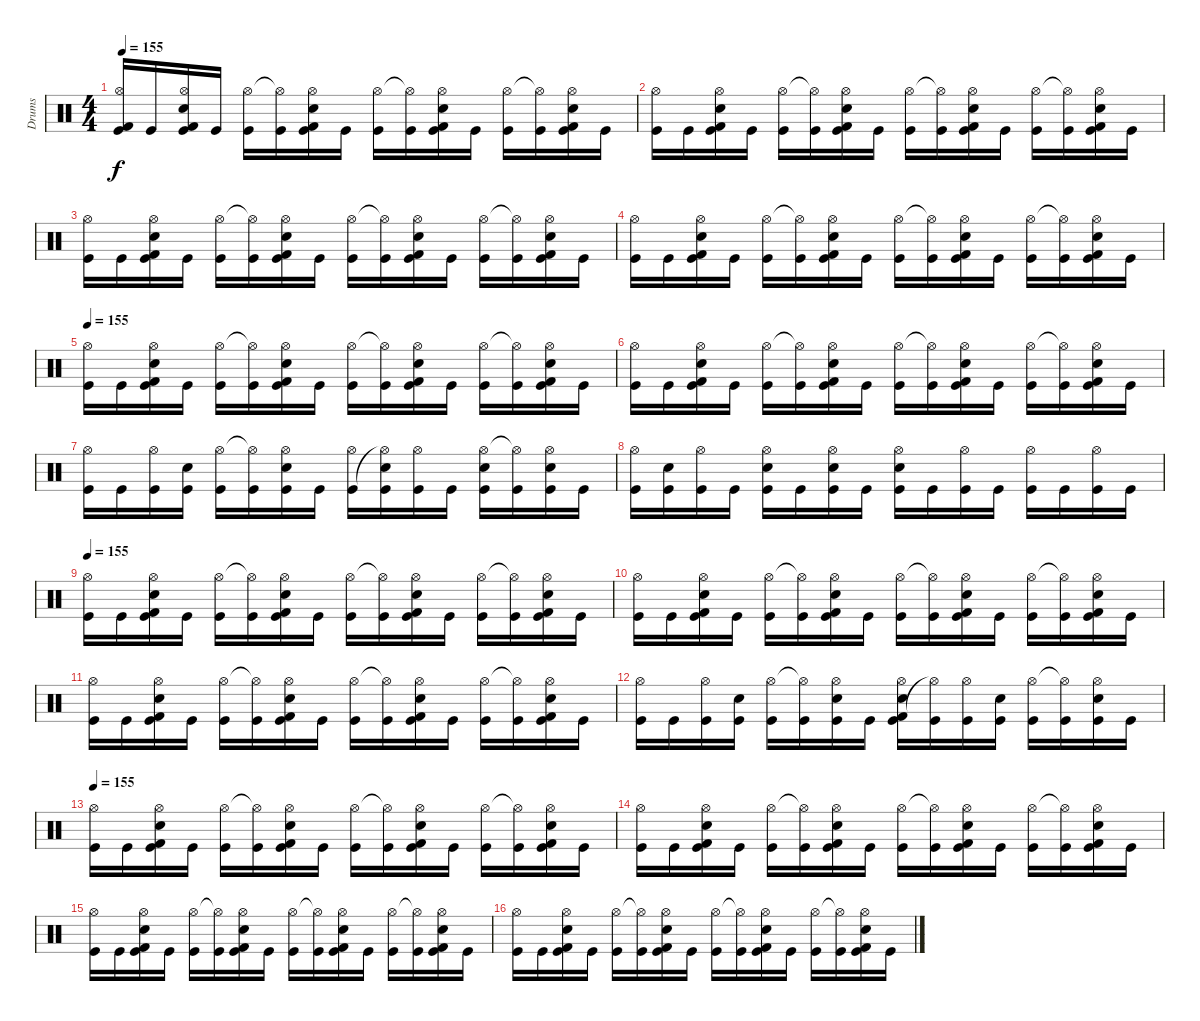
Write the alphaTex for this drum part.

\track ("Drums" "Drums") {instrument percussion}
\staff {score}
\articulation defaults
\ts (4 4)
\tempo 155
\clef neutral
\ks c
("Kick (hit) 2" "Hi-Hat (open)" "Kick (hit)").16{dy f} "Kick (hit)".16 ("Kick (hit) 2" "Electric Snare (hit)" "Hi-Hat (open)" "Kick (hit)").16 "Kick (hit)".16 ("Hi-Hat (open)" "Kick (hit)").16 ("Hi-Hat (open)"{t} "Kick (hit)").16 ("Kick (hit) 2" "Electric Snare (hit)" "Hi-Hat (open)" "Kick (hit)").16 "Kick (hit)".16 ("Hi-Hat (open)" "Kick (hit)").16 ("Hi-Hat (open)"{t} "Kick (hit)").16 ("Kick (hit) 2" "Electric Snare (hit)" "Hi-Hat (open)" "Kick (hit)").16 "Kick (hit)".16 ("Hi-Hat (open)" "Kick (hit)").16 ("Hi-Hat (open)"{t} "Kick (hit)").16 ("Kick (hit) 2" "Electric Snare (hit)" "Hi-Hat (open)" "Kick (hit)").16 "Kick (hit)".16 |
("Hi-Hat (open)" "Kick (hit)").16 "Kick (hit)".16 ("Kick (hit) 2" "Electric Snare (hit)" "Hi-Hat (open)" "Kick (hit)").16 "Kick (hit)".16 ("Hi-Hat (open)" "Kick (hit)").16 ("Hi-Hat (open)"{t} "Kick (hit)").16 ("Kick (hit) 2" "Electric Snare (hit)" "Hi-Hat (open)" "Kick (hit)").16 "Kick (hit)".16 ("Hi-Hat (open)" "Kick (hit)").16 ("Hi-Hat (open)"{t} "Kick (hit)").16 ("Kick (hit) 2" "Electric Snare (hit)" "Hi-Hat (open)" "Kick (hit)").16 "Kick (hit)".16 ("Hi-Hat (open)" "Kick (hit)").16 ("Hi-Hat (open)"{t} "Kick (hit)").16 ("Kick (hit) 2" "Electric Snare (hit)" "Hi-Hat (open)" "Kick (hit)").16 "Kick (hit)".16 |
("Hi-Hat (open)" "Kick (hit)").16 "Kick (hit)".16 ("Kick (hit) 2" "Electric Snare (hit)" "Hi-Hat (open)" "Kick (hit)").16 "Kick (hit)".16 ("Hi-Hat (open)" "Kick (hit)").16 ("Hi-Hat (open)"{t} "Kick (hit)").16 ("Kick (hit) 2" "Electric Snare (hit)" "Hi-Hat (open)" "Kick (hit)").16 "Kick (hit)".16 ("Hi-Hat (open)" "Kick (hit)").16 ("Hi-Hat (open)"{t} "Kick (hit)").16 ("Kick (hit) 2" "Electric Snare (hit)" "Hi-Hat (open)" "Kick (hit)").16 "Kick (hit)".16 ("Hi-Hat (open)" "Kick (hit)").16 ("Hi-Hat (open)"{t} "Kick (hit)").16 ("Kick (hit) 2" "Electric Snare (hit)" "Hi-Hat (open)" "Kick (hit)").16 "Kick (hit)".16 |
("Hi-Hat (open)" "Kick (hit)").16 "Kick (hit)".16 ("Kick (hit) 2" "Electric Snare (hit)" "Hi-Hat (open)" "Kick (hit)").16 "Kick (hit)".16 ("Hi-Hat (open)" "Kick (hit)").16 ("Hi-Hat (open)"{t} "Kick (hit)").16 ("Kick (hit) 2" "Electric Snare (hit)" "Hi-Hat (open)" "Kick (hit)").16 "Kick (hit)".16 ("Hi-Hat (open)" "Kick (hit)").16 ("Hi-Hat (open)"{t} "Kick (hit)").16 ("Kick (hit) 2" "Electric Snare (hit)" "Hi-Hat (open)" "Kick (hit)").16 "Kick (hit)".16 ("Hi-Hat (open)" "Kick (hit)").16 ("Hi-Hat (open)"{t} "Kick (hit)").16 ("Kick (hit) 2" "Electric Snare (hit)" "Hi-Hat (open)" "Kick (hit)").16 "Kick (hit)".16 |
\tempo 155
("Hi-Hat (open)" "Kick (hit)").16 "Kick (hit)".16 ("Kick (hit) 2" "Electric Snare (hit)" "Hi-Hat (open)" "Kick (hit)").16 "Kick (hit)".16 ("Hi-Hat (open)" "Kick (hit)").16 ("Hi-Hat (open)"{t} "Kick (hit)").16 ("Kick (hit) 2" "Electric Snare (hit)" "Hi-Hat (open)" "Kick (hit)").16 "Kick (hit)".16 ("Hi-Hat (open)" "Kick (hit)").16 ("Hi-Hat (open)"{t} "Kick (hit)").16 ("Kick (hit) 2" "Electric Snare (hit)" "Hi-Hat (open)" "Kick (hit)").16 "Kick (hit)".16 ("Hi-Hat (open)" "Kick (hit)").16 ("Hi-Hat (open)"{t} "Kick (hit)").16 ("Kick (hit) 2" "Electric Snare (hit)" "Hi-Hat (open)" "Kick (hit)").16 "Kick (hit)".16 |
("Hi-Hat (open)" "Kick (hit)").16 "Kick (hit)".16 ("Kick (hit) 2" "Electric Snare (hit)" "Hi-Hat (open)" "Kick (hit)").16 "Kick (hit)".16 ("Hi-Hat (open)" "Kick (hit)").16 ("Hi-Hat (open)"{t} "Kick (hit)").16 ("Kick (hit) 2" "Electric Snare (hit)" "Hi-Hat (open)" "Kick (hit)").16 "Kick (hit)".16 ("Hi-Hat (open)" "Kick (hit)").16 ("Hi-Hat (open)"{t} "Kick (hit)").16 ("Kick (hit) 2" "Electric Snare (hit)" "Hi-Hat (open)" "Kick (hit)").16 "Kick (hit)".16 ("Hi-Hat (open)" "Kick (hit)").16 ("Hi-Hat (open)"{t} "Kick (hit)").16 ("Kick (hit) 2" "Electric Snare (hit)" "Hi-Hat (open)" "Kick (hit)").16 "Kick (hit)".16 |
("Hi-Hat (open)" "Kick (hit)").16 "Kick (hit)".16 ("Hi-Hat (open)" "Kick (hit)").16 ("Electric Snare (hit)" "Kick (hit)").16 ("Hi-Hat (open)" "Kick (hit)").16 ("Hi-Hat (open)"{t} "Kick (hit)").16 ("Electric Snare (hit)" "Hi-Hat (open)" "Kick (hit)").16 "Kick (hit)".16 ("Hi-Hat (open)" "Kick (hit)").16 ("Electric Snare (hit)" "Hi-Hat (open)"{t} "Kick (hit)").16 ("Hi-Hat (open)" "Kick (hit)").16 "Kick (hit)".16 ("Hi-Hat (open)" "Electric Snare (hit)" "Kick (hit)").16 ("Hi-Hat (open)"{t} "Kick (hit)").16 ("Hi-Hat (open)" "Electric Snare (hit)" "Kick (hit)").16 "Kick (hit)".16 |
("Hi-Hat (open)" "Kick (hit)").16 ("Electric Snare (hit)" "Kick (hit)").16 ("Hi-Hat (open)" "Kick (hit)").16 "Kick (hit)".16 ("Electric Snare (hit)" "Hi-Hat (open)" "Kick (hit)").16 "Kick (hit)".16 ("Electric Snare (hit)" "Hi-Hat (open)" "Kick (hit)").16 "Kick (hit)".16 ("Electric Snare (hit)" "Hi-Hat (open)" "Kick (hit)").16 "Kick (hit)".16 ("Hi-Hat (open)" "Kick (hit)").16 "Kick (hit)".16 ("Hi-Hat (open)" "Kick (hit)").16 "Kick (hit)".16 ("Hi-Hat (open)" "Kick (hit)").16 "Kick (hit)".16 |
\tempo 155
("Hi-Hat (open)" "Kick (hit)").16 "Kick (hit)".16 ("Kick (hit) 2" "Electric Snare (hit)" "Hi-Hat (open)" "Kick (hit)").16 "Kick (hit)".16 ("Hi-Hat (open)" "Kick (hit)").16 ("Hi-Hat (open)"{t} "Kick (hit)").16 ("Kick (hit) 2" "Electric Snare (hit)" "Hi-Hat (open)" "Kick (hit)").16 "Kick (hit)".16 ("Hi-Hat (open)" "Kick (hit)").16 ("Hi-Hat (open)"{t} "Kick (hit)").16 ("Kick (hit) 2" "Electric Snare (hit)" "Hi-Hat (open)" "Kick (hit)").16 "Kick (hit)".16 ("Hi-Hat (open)" "Kick (hit)").16 ("Hi-Hat (open)"{t} "Kick (hit)").16 ("Kick (hit) 2" "Electric Snare (hit)" "Hi-Hat (open)" "Kick (hit)").16 "Kick (hit)".16 |
("Hi-Hat (open)" "Kick (hit)").16 "Kick (hit)".16 ("Kick (hit) 2" "Electric Snare (hit)" "Hi-Hat (open)" "Kick (hit)").16 "Kick (hit)".16 ("Hi-Hat (open)" "Kick (hit)").16 ("Hi-Hat (open)"{t} "Kick (hit)").16 ("Kick (hit) 2" "Electric Snare (hit)" "Hi-Hat (open)" "Kick (hit)").16 "Kick (hit)".16 ("Hi-Hat (open)" "Kick (hit)").16 ("Hi-Hat (open)"{t} "Kick (hit)").16 ("Kick (hit) 2" "Electric Snare (hit)" "Hi-Hat (open)" "Kick (hit)").16 "Kick (hit)".16 ("Hi-Hat (open)" "Kick (hit)").16 ("Hi-Hat (open)"{t} "Kick (hit)").16 ("Kick (hit) 2" "Electric Snare (hit)" "Hi-Hat (open)" "Kick (hit)").16 "Kick (hit)".16 |
("Hi-Hat (open)" "Kick (hit)").16 "Kick (hit)".16 ("Kick (hit) 2" "Electric Snare (hit)" "Hi-Hat (open)" "Kick (hit)").16 "Kick (hit)".16 ("Hi-Hat (open)" "Kick (hit)").16 ("Hi-Hat (open)"{t} "Kick (hit)").16 ("Kick (hit) 2" "Electric Snare (hit)" "Hi-Hat (open)" "Kick (hit)").16 "Kick (hit)".16 ("Hi-Hat (open)" "Kick (hit)").16 ("Hi-Hat (open)"{t} "Kick (hit)").16 ("Kick (hit) 2" "Electric Snare (hit)" "Hi-Hat (open)" "Kick (hit)").16 "Kick (hit)".16 ("Hi-Hat (open)" "Kick (hit)").16 ("Hi-Hat (open)"{t} "Kick (hit)").16 ("Kick (hit) 2" "Electric Snare (hit)" "Hi-Hat (open)" "Kick (hit)").16 "Kick (hit)".16 |
("Hi-Hat (open)" "Kick (hit)").16 "Kick (hit)".16 ("Hi-Hat (open)" "Kick (hit)").16 ("Electric Snare (hit)" "Kick (hit)").16 ("Hi-Hat (open)" "Kick (hit)").16 ("Hi-Hat (open)"{t} "Kick (hit)").16 ("Electric Snare (hit)" "Hi-Hat (open)" "Kick (hit)").16 "Kick (hit)".16 ("Kick (hit) 2" "Electric Snare (hit)" "Hi-Hat (open)" "Kick (hit)").16 ("Hi-Hat (open)"{t} "Kick (hit)").16 ("Hi-Hat (open)" "Kick (hit)").16 ("Electric Snare (hit)" "Kick (hit)").16 ("Hi-Hat (open)" "Kick (hit)").16 ("Hi-Hat (open)"{t} "Kick (hit)").16 ("Electric Snare (hit)" "Hi-Hat (open)" "Kick (hit)").16 "Kick (hit)".16 |
\tempo 155
("Hi-Hat (open)" "Kick (hit)").16 "Kick (hit)".16 ("Kick (hit) 2" "Electric Snare (hit)" "Hi-Hat (open)" "Kick (hit)").16 "Kick (hit)".16 ("Hi-Hat (open)" "Kick (hit)").16 ("Hi-Hat (open)"{t} "Kick (hit)").16 ("Kick (hit) 2" "Electric Snare (hit)" "Hi-Hat (open)" "Kick (hit)").16 "Kick (hit)".16 ("Hi-Hat (open)" "Kick (hit)").16 ("Hi-Hat (open)"{t} "Kick (hit)").16 ("Kick (hit) 2" "Electric Snare (hit)" "Hi-Hat (open)" "Kick (hit)").16 "Kick (hit)".16 ("Hi-Hat (open)" "Kick (hit)").16 ("Hi-Hat (open)"{t} "Kick (hit)").16 ("Kick (hit) 2" "Electric Snare (hit)" "Hi-Hat (open)" "Kick (hit)").16 "Kick (hit)".16 |
("Hi-Hat (open)" "Kick (hit)").16 "Kick (hit)".16 ("Kick (hit) 2" "Electric Snare (hit)" "Hi-Hat (open)" "Kick (hit)").16 "Kick (hit)".16 ("Hi-Hat (open)" "Kick (hit)").16 ("Hi-Hat (open)"{t} "Kick (hit)").16 ("Kick (hit) 2" "Electric Snare (hit)" "Hi-Hat (open)" "Kick (hit)").16 "Kick (hit)".16 ("Hi-Hat (open)" "Kick (hit)").16 ("Hi-Hat (open)"{t} "Kick (hit)").16 ("Kick (hit) 2" "Electric Snare (hit)" "Hi-Hat (open)" "Kick (hit)").16 "Kick (hit)".16 ("Hi-Hat (open)" "Kick (hit)").16 ("Hi-Hat (open)"{t} "Kick (hit)").16 ("Kick (hit) 2" "Electric Snare (hit)" "Hi-Hat (open)" "Kick (hit)").16 "Kick (hit)".16 |
("Hi-Hat (open)" "Kick (hit)").16 "Kick (hit)".16 ("Kick (hit) 2" "Electric Snare (hit)" "Hi-Hat (open)" "Kick (hit)").16 "Kick (hit)".16 ("Hi-Hat (open)" "Kick (hit)").16 ("Hi-Hat (open)"{t} "Kick (hit)").16 ("Kick (hit) 2" "Electric Snare (hit)" "Hi-Hat (open)" "Kick (hit)").16 "Kick (hit)".16 ("Hi-Hat (open)" "Kick (hit)").16 ("Hi-Hat (open)"{t} "Kick (hit)").16 ("Kick (hit) 2" "Electric Snare (hit)" "Hi-Hat (open)" "Kick (hit)").16 "Kick (hit)".16 ("Hi-Hat (open)" "Kick (hit)").16 ("Hi-Hat (open)"{t} "Kick (hit)").16 ("Kick (hit) 2" "Electric Snare (hit)" "Hi-Hat (open)" "Kick (hit)").16 "Kick (hit)".16 |
("Hi-Hat (open)" "Kick (hit)").16 "Kick (hit)".16 ("Kick (hit) 2" "Electric Snare (hit)" "Hi-Hat (open)" "Kick (hit)").16 "Kick (hit)".16 ("Hi-Hat (open)" "Kick (hit)").16 ("Hi-Hat (open)"{t} "Kick (hit)").16 ("Kick (hit) 2" "Electric Snare (hit)" "Hi-Hat (open)" "Kick (hit)").16 "Kick (hit)".16 ("Hi-Hat (open)" "Kick (hit)").16 ("Hi-Hat (open)"{t} "Kick (hit)").16 ("Kick (hit) 2" "Electric Snare (hit)" "Hi-Hat (open)" "Kick (hit)").16 "Kick (hit)".16 ("Hi-Hat (open)" "Kick (hit)").16 ("Hi-Hat (open)"{t} "Kick (hit)").16 ("Kick (hit) 2" "Electric Snare (hit)" "Hi-Hat (open)" "Kick (hit)").16 "Kick (hit)".16
